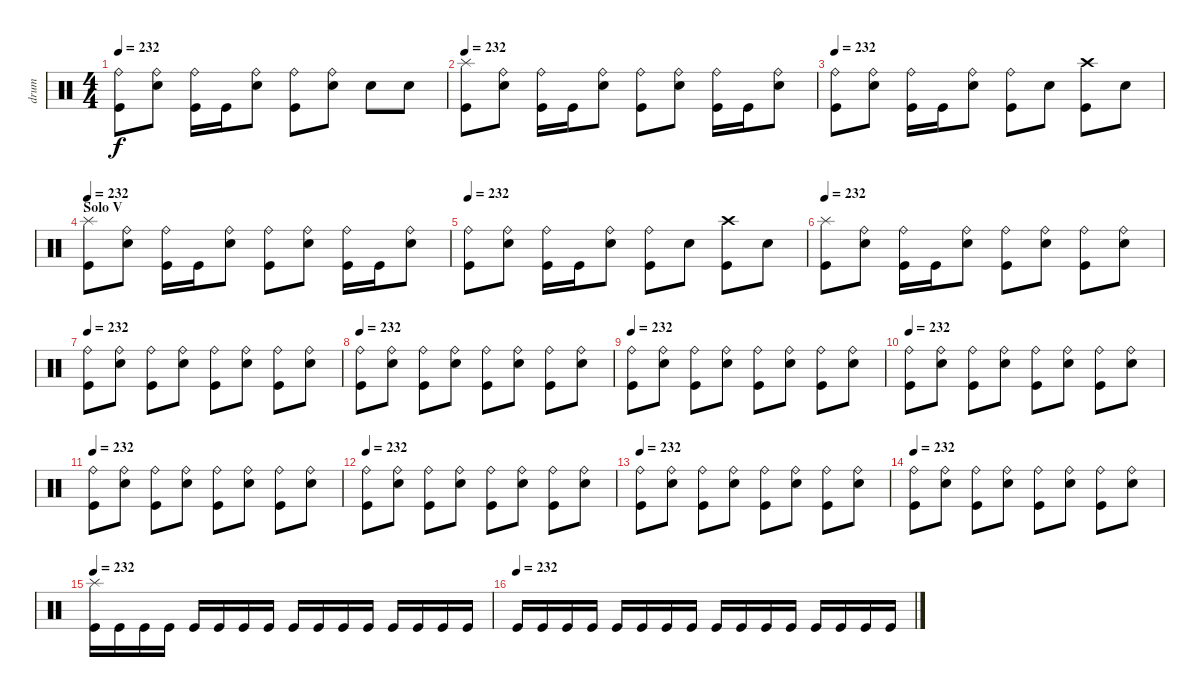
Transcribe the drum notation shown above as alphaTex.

\track ("drum" "drum") {instrument percussion}
\staff {score}
\articulation defaults
\ts (4 4)
\tempo 232
\clef neutral
\ks c
("Kick (hit)" "Ride (bell)").8{dy f} ("Electric Snare (hit)" "Ride (bell)").8 ("Kick (hit)" "Ride (bell)").16 "Kick (hit)".16 ("Electric Snare (hit)" "Ride (bell)").8 ("Kick (hit)" "Ride (bell)").8 ("Electric Snare (hit)" "Ride (bell)").8 "Electric Snare (hit)".8 "Electric Snare (hit)".8 |
\tempo 232
("Kick (hit)" "Splash (hit)").8 ("Electric Snare (hit)" "Ride (bell)").8 ("Kick (hit)" "Ride (bell)").16 "Kick (hit)".16 ("Electric Snare (hit)" "Ride (bell)").8 ("Kick (hit)" "Ride (bell)").8 ("Electric Snare (hit)" "Ride (bell)").8 ("Kick (hit)" "Ride (bell)").16 "Kick (hit)".16 ("Electric Snare (hit)" "Ride (bell)").8 |
\tempo 232
("Kick (hit)" "Ride (bell)").8 ("Electric Snare (hit)" "Ride (bell)").8 ("Kick (hit)" "Ride (bell)").16 "Kick (hit)".16 ("Electric Snare (hit)" "Ride (bell)").8 ("Kick (hit)" "Ride (bell)").8 "Electric Snare (hit)".8 ("Kick (hit)" "Crash high (hit)").8 "Electric Snare (hit)".8 |
\section ("" "Solo V")
\tempo 232
("Kick (hit)" "Splash (hit)").8 ("Electric Snare (hit)" "Ride (bell)").8 ("Kick (hit)" "Ride (bell)").16 "Kick (hit)".16 ("Electric Snare (hit)" "Ride (bell)").8 ("Kick (hit)" "Ride (bell)").8 ("Electric Snare (hit)" "Ride (bell)").8 ("Kick (hit)" "Ride (bell)").16 "Kick (hit)".16 ("Electric Snare (hit)" "Ride (bell)").8 |
\tempo 232
("Kick (hit)" "Ride (bell)").8 ("Electric Snare (hit)" "Ride (bell)").8 ("Kick (hit)" "Ride (bell)").16 "Kick (hit)".16 ("Electric Snare (hit)" "Ride (bell)").8 ("Kick (hit)" "Ride (bell)").8 "Electric Snare (hit)".8 ("Kick (hit)" "Crash high (hit)").8 "Electric Snare (hit)".8 |
\tempo 232
("Kick (hit)" "Splash (hit)").8 ("Electric Snare (hit)" "Ride (bell)").8 ("Kick (hit)" "Ride (bell)").16 "Kick (hit)".16 ("Electric Snare (hit)" "Ride (bell)").8 ("Kick (hit)" "Ride (bell)").8 ("Electric Snare (hit)" "Ride (bell)").8 ("Kick (hit)" "Ride (bell)").8 ("Electric Snare (hit)" "Ride (bell)").8 |
\tempo 232
("Kick (hit)" "Ride (bell)").8 ("Electric Snare (hit)" "Ride (bell)").8 ("Kick (hit)" "Ride (bell)").8 ("Electric Snare (hit)" "Ride (bell)").8 ("Kick (hit)" "Ride (bell)").8 ("Electric Snare (hit)" "Ride (bell)").8 ("Kick (hit)" "Ride (bell)").8 ("Electric Snare (hit)" "Ride (bell)").8 |
\tempo 232
("Kick (hit)" "Ride (bell)").8 ("Electric Snare (hit)" "Ride (bell)").8 ("Kick (hit)" "Ride (bell)").8 ("Electric Snare (hit)" "Ride (bell)").8 ("Kick (hit)" "Ride (bell)").8 ("Electric Snare (hit)" "Ride (bell)").8 ("Kick (hit)" "Ride (bell)").8 ("Electric Snare (hit)" "Ride (bell)").8 |
\tempo 232
("Kick (hit)" "Ride (bell)").8 ("Electric Snare (hit)" "Ride (bell)").8 ("Kick (hit)" "Ride (bell)").8 ("Electric Snare (hit)" "Ride (bell)").8 ("Kick (hit)" "Ride (bell)").8 ("Electric Snare (hit)" "Ride (bell)").8 ("Kick (hit)" "Ride (bell)").8 ("Electric Snare (hit)" "Ride (bell)").8 |
\tempo 232
("Kick (hit)" "Ride (bell)").8 ("Electric Snare (hit)" "Ride (bell)").8 ("Kick (hit)" "Ride (bell)").8 ("Electric Snare (hit)" "Ride (bell)").8 ("Kick (hit)" "Ride (bell)").8 ("Electric Snare (hit)" "Ride (bell)").8 ("Kick (hit)" "Ride (bell)").8 ("Electric Snare (hit)" "Ride (bell)").8 |
\tempo 232
("Kick (hit)" "Ride (bell)").8 ("Electric Snare (hit)" "Ride (bell)").8 ("Kick (hit)" "Ride (bell)").8 ("Electric Snare (hit)" "Ride (bell)").8 ("Kick (hit)" "Ride (bell)").8 ("Electric Snare (hit)" "Ride (bell)").8 ("Kick (hit)" "Ride (bell)").8 ("Electric Snare (hit)" "Ride (bell)").8 |
\tempo 232
("Kick (hit)" "Ride (bell)").8 ("Electric Snare (hit)" "Ride (bell)").8 ("Kick (hit)" "Ride (bell)").8 ("Electric Snare (hit)" "Ride (bell)").8 ("Kick (hit)" "Ride (bell)").8 ("Electric Snare (hit)" "Ride (bell)").8 ("Kick (hit)" "Ride (bell)").8 ("Electric Snare (hit)" "Ride (bell)").8 |
\tempo 232
("Kick (hit)" "Ride (bell)").8 ("Electric Snare (hit)" "Ride (bell)").8 ("Kick (hit)" "Ride (bell)").8 ("Electric Snare (hit)" "Ride (bell)").8 ("Kick (hit)" "Ride (bell)").8 ("Electric Snare (hit)" "Ride (bell)").8 ("Kick (hit)" "Ride (bell)").8 ("Electric Snare (hit)" "Ride (bell)").8 |
\tempo 232
("Kick (hit)" "Ride (bell)").8 ("Electric Snare (hit)" "Ride (bell)").8 ("Kick (hit)" "Ride (bell)").8 ("Electric Snare (hit)" "Ride (bell)").8 ("Kick (hit)" "Ride (bell)").8 ("Electric Snare (hit)" "Ride (bell)").8 ("Kick (hit)" "Ride (bell)").8 ("Electric Snare (hit)" "Ride (bell)").8 |
\tempo 232
("Kick (hit)" "Splash (hit)").16 "Kick (hit)".16 "Kick (hit)".16 "Kick (hit)".16 "Kick (hit)".16 "Kick (hit)".16 "Kick (hit)".16 "Kick (hit)".16 "Kick (hit)".16 "Kick (hit)".16 "Kick (hit)".16 "Kick (hit)".16 "Kick (hit)".16 "Kick (hit)".16 "Kick (hit)".16 "Kick (hit)".16 |
\tempo (232)
"Kick (hit)".16 "Kick (hit)".16 "Kick (hit)".16 "Kick (hit)".16 "Kick (hit)".16 "Kick (hit)".16 "Kick (hit)".16 "Kick (hit)".16 "Kick (hit)".16 "Kick (hit)".16 "Kick (hit)".16 "Kick (hit)".16 "Kick (hit)".16 "Kick (hit)".16 "Kick (hit)".16 "Kick (hit)".16
